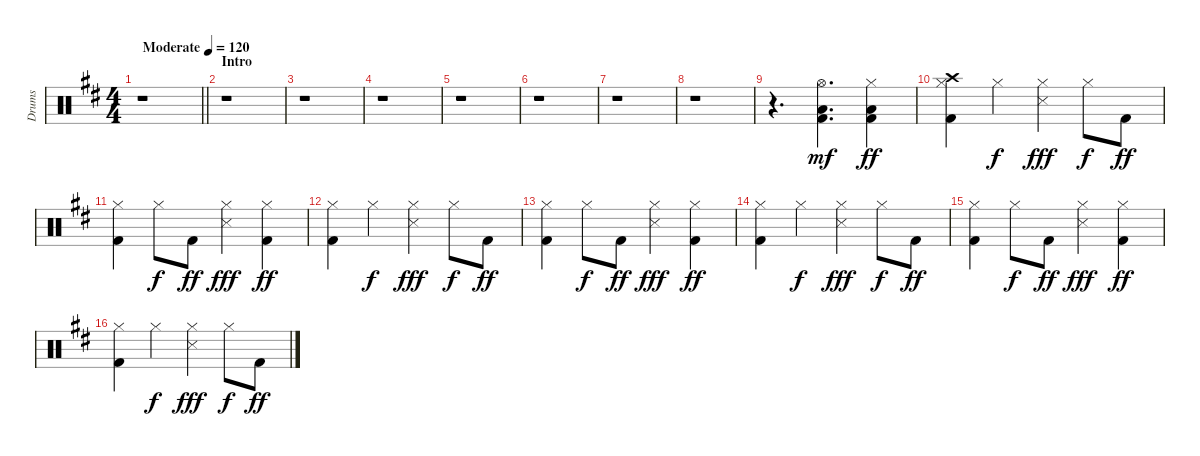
\track ("Drums" "Drums") {instrument percussion}
\staff {score}
\articulation defaults
\ts (4 4)
\tempo (120 "Moderate")
\clef neutral
\barLineRight lightlight
\ks d
r.1{dy mf} |
\section ("" "Intro")
r.1 |
r.1 |
r.1 |
r.1 |
r.1 |
r.1 |
r.1 |
r.4{d} ("Kick (hit) 2" "Low Tom (hit)" "Hi-Hat (open)").4{d} ("Kick (hit) 2" "Low Floor Tom (hit)" "Hi-Hat (closed)").4{dy ff} |
("Kick (hit) 2" "Hi-Hat (closed)" "Crash high (hit)").4 "Hi-Hat (closed)".4{dy f} ("Snare (side stick) 3" "Hi-Hat (closed)").4{dy fff} "Hi-Hat (closed)".8{dy f} "Kick (hit) 2".8{dy ff} |
("Kick (hit) 2" "Hi-Hat (closed)").4 "Hi-Hat (closed)".8{dy f} "Kick (hit) 2".8{dy ff} ("Snare (side stick) 3" "Hi-Hat (closed)").4{dy fff} ("Kick (hit) 2" "Hi-Hat (closed)").4{dy ff} |
("Kick (hit) 2" "Hi-Hat (closed)").4 "Hi-Hat (closed)".4{dy f} ("Snare (side stick) 3" "Hi-Hat (closed)").4{dy fff} "Hi-Hat (closed)".8{dy f} "Kick (hit) 2".8{dy ff} |
("Kick (hit) 2" "Hi-Hat (closed)").4 "Hi-Hat (closed)".8{dy f} "Kick (hit) 2".8{dy ff} ("Snare (side stick) 3" "Hi-Hat (closed)").4{dy fff} ("Kick (hit) 2" "Hi-Hat (closed)").4{dy ff} |
("Kick (hit) 2" "Hi-Hat (closed)").4 "Hi-Hat (closed)".4{dy f} ("Snare (side stick) 3" "Hi-Hat (closed)").4{dy fff} "Hi-Hat (closed)".8{dy f} "Kick (hit) 2".8{dy ff} |
("Kick (hit) 2" "Hi-Hat (closed)").4 "Hi-Hat (closed)".8{dy f} "Kick (hit) 2".8{dy ff} ("Snare (side stick) 3" "Hi-Hat (closed)").4{dy fff} ("Kick (hit) 2" "Hi-Hat (closed)").4{dy ff} |
("Kick (hit) 2" "Hi-Hat (closed)").4 "Hi-Hat (closed)".4{dy f} ("Snare (side stick) 3" "Hi-Hat (closed)").4{dy fff} "Hi-Hat (closed)".8{dy f} "Kick (hit) 2".8{dy ff}
